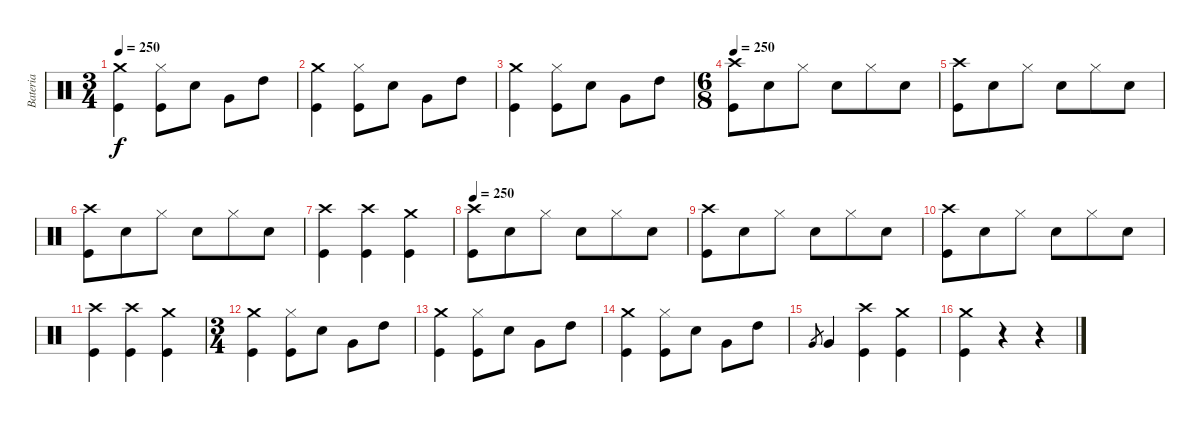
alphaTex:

\track ("Bateria" "Bateria") {instrument percussion}
\staff {score}
\articulation defaults
\ts (3 4)
\tempo 250
\clef neutral
\ks c
("Crash medium (hit)" "Kick (hit)").4{dy f} ("Hi-Hat (closed)" "Kick (hit)").8 "Snare (hit) 2".8 "Very Low Tom (hit)".8 "High Tom (hit)".8 |
("Crash medium (hit)" "Kick (hit)").4 ("Hi-Hat (closed)" "Kick (hit)").8 "Snare (hit) 2".8 "Very Low Tom (hit)".8 "High Tom (hit)".8 |
("Crash medium (hit)" "Kick (hit)").4 ("Hi-Hat (closed)" "Kick (hit)").8 "Snare (hit) 2".8 "Very Low Tom (hit)".8 "High Tom (hit)".8 |
\ts (6 8)
\tempo 250
("Crash high (hit)" "Kick (hit)").8 "Snare (hit) 2".8 "Hi-Hat (closed)".8 "Snare (hit) 2".8 "Hi-Hat (closed)".8 "Snare (hit) 2".8 |
("Crash high (hit)" "Kick (hit)").8 "Snare (hit) 2".8 "Hi-Hat (closed)".8 "Snare (hit) 2".8 "Hi-Hat (closed)".8 "Snare (hit) 2".8 |
("Crash high (hit)" "Kick (hit)").8 "Snare (hit) 2".8 "Hi-Hat (closed)".8 "Snare (hit) 2".8 "Hi-Hat (closed)".8 "Snare (hit) 2".8 |
("Crash high (hit)" "Kick (hit)").4 ("Crash high (hit)" "Kick (hit)").4 ("Crash medium (hit)" "Kick (hit)").4 |
\tempo 250
("Crash high (hit)" "Kick (hit)").8 "Snare (hit) 2".8 "Hi-Hat (closed)".8 "Snare (hit) 2".8 "Hi-Hat (closed)".8 "Snare (hit) 2".8 |
("Crash high (hit)" "Kick (hit)").8 "Snare (hit) 2".8 "Hi-Hat (closed)".8 "Snare (hit) 2".8 "Hi-Hat (closed)".8 "Snare (hit) 2".8 |
("Crash high (hit)" "Kick (hit)").8 "Snare (hit) 2".8 "Hi-Hat (closed)".8 "Snare (hit) 2".8 "Hi-Hat (closed)".8 "Snare (hit) 2".8 |
("Crash high (hit)" "Kick (hit)").4 ("Crash high (hit)" "Kick (hit)").4 ("Crash medium (hit)" "Kick (hit)").4 |
\ts (3 4)
("Crash medium (hit)" "Kick (hit)").4 ("Hi-Hat (closed)" "Kick (hit)").8 "Snare (hit) 2".8 "Very Low Tom (hit)".8 "High Tom (hit)".8 |
("Crash medium (hit)" "Kick (hit)").4 ("Hi-Hat (closed)" "Kick (hit)").8 "Snare (hit) 2".8 "Very Low Tom (hit)".8 "High Tom (hit)".8 |
("Crash medium (hit)" "Kick (hit)").4 ("Hi-Hat (closed)" "Kick (hit)").8 "Snare (hit) 2".8 "Very Low Tom (hit)".8 "High Tom (hit)".8 |
"Very Low Tom (hit)".8{gr} "Very Low Tom (hit)".4 ("Crash high (hit)" "Kick (hit)").4 ("Crash medium (hit)" "Kick (hit)").4 |
("Crash medium (hit)" "Kick (hit)").4 r.4 r.4
